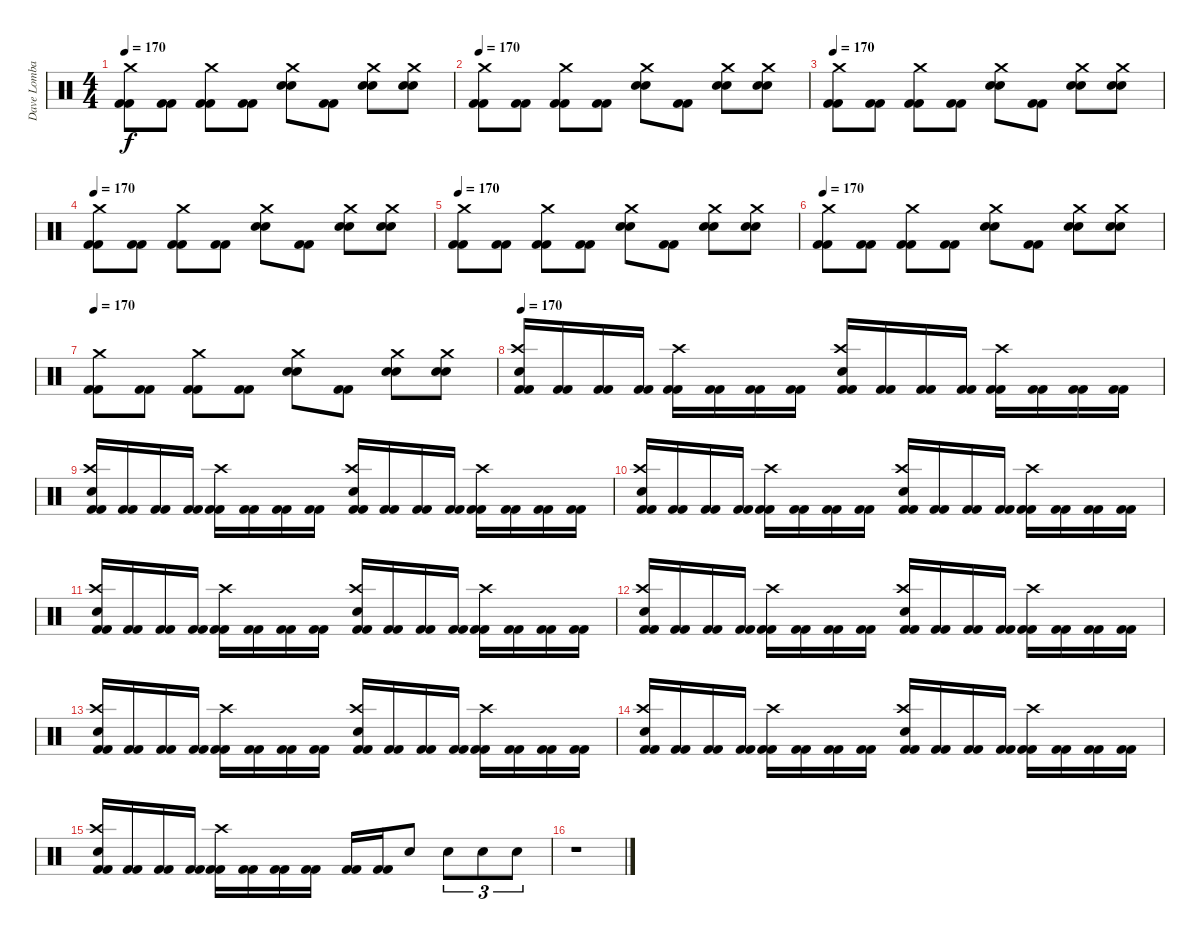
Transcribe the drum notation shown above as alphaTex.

\track ("Dave Lombardo" "Dave Lomba") {instrument percussion}
\staff {score}
\articulation defaults
\ts (4 4)
\tempo 170
\clef neutral
\ks c
("Crash medium (hit)" "Kick (hit) 2" "Kick (hit) 2").8{dy f} ("Kick (hit) 2" "Kick (hit) 2").8{txt " "} ("Crash medium (hit)" "Kick (hit) 2" "Kick (hit) 2").8 ("Kick (hit) 2" "Kick (hit) 2").8 ("Crash medium (hit)" "Snare (hit) 2" "Snare (hit) 2").8 ("Kick (hit) 2" "Kick (hit) 2").8 ("Crash medium (hit)" "Snare (hit) 2" "Snare (hit) 2").8 ("Crash medium (hit)" "Snare (hit) 2" "Snare (hit) 2").8 |
\tempo 170
("Crash medium (hit)" "Kick (hit) 2" "Kick (hit) 2").8 ("Kick (hit) 2" "Kick (hit) 2").8{txt " "} ("Crash medium (hit)" "Kick (hit) 2" "Kick (hit) 2").8 ("Kick (hit) 2" "Kick (hit) 2").8 ("Crash medium (hit)" "Snare (hit) 2" "Snare (hit) 2").8 ("Kick (hit) 2" "Kick (hit) 2").8 ("Crash medium (hit)" "Snare (hit) 2" "Snare (hit) 2").8 ("Crash medium (hit)" "Snare (hit) 2" "Snare (hit) 2").8 |
\tempo 170
("Crash medium (hit)" "Kick (hit) 2" "Kick (hit) 2").8 ("Kick (hit) 2" "Kick (hit) 2").8{txt " "} ("Crash medium (hit)" "Kick (hit) 2" "Kick (hit) 2").8 ("Kick (hit) 2" "Kick (hit) 2").8 ("Crash medium (hit)" "Snare (hit) 2" "Snare (hit) 2").8 ("Kick (hit) 2" "Kick (hit) 2").8 ("Crash medium (hit)" "Snare (hit) 2" "Snare (hit) 2").8 ("Crash medium (hit)" "Snare (hit) 2" "Snare (hit) 2").8 |
\tempo 170
("Crash medium (hit)" "Kick (hit) 2" "Kick (hit) 2").8 ("Kick (hit) 2" "Kick (hit) 2").8{txt " "} ("Crash medium (hit)" "Kick (hit) 2" "Kick (hit) 2").8 ("Kick (hit) 2" "Kick (hit) 2").8 ("Crash medium (hit)" "Snare (hit) 2" "Snare (hit) 2").8 ("Kick (hit) 2" "Kick (hit) 2").8 ("Crash medium (hit)" "Snare (hit) 2" "Snare (hit) 2").8 ("Crash medium (hit)" "Snare (hit) 2" "Snare (hit) 2").8 |
\tempo 170
("Crash medium (hit)" "Kick (hit) 2" "Kick (hit) 2").8 ("Kick (hit) 2" "Kick (hit) 2").8{txt " "} ("Crash medium (hit)" "Kick (hit) 2" "Kick (hit) 2").8 ("Kick (hit) 2" "Kick (hit) 2").8 ("Crash medium (hit)" "Snare (hit) 2" "Snare (hit) 2").8 ("Kick (hit) 2" "Kick (hit) 2").8 ("Crash medium (hit)" "Snare (hit) 2" "Snare (hit) 2").8 ("Crash medium (hit)" "Snare (hit) 2" "Snare (hit) 2").8 |
\tempo 170
("Crash medium (hit)" "Kick (hit) 2" "Kick (hit) 2").8 ("Kick (hit) 2" "Kick (hit) 2").8{txt " "} ("Crash medium (hit)" "Kick (hit) 2" "Kick (hit) 2").8 ("Kick (hit) 2" "Kick (hit) 2").8 ("Crash medium (hit)" "Snare (hit) 2" "Snare (hit) 2").8 ("Kick (hit) 2" "Kick (hit) 2").8 ("Crash medium (hit)" "Snare (hit) 2" "Snare (hit) 2").8 ("Crash medium (hit)" "Snare (hit) 2" "Snare (hit) 2").8 |
\tempo 170
("Crash medium (hit)" "Kick (hit) 2" "Kick (hit) 2").8 ("Kick (hit) 2" "Kick (hit) 2").8{txt " "} ("Crash medium (hit)" "Kick (hit) 2" "Kick (hit) 2").8 ("Kick (hit) 2" "Kick (hit) 2").8 ("Crash medium (hit)" "Snare (hit) 2" "Snare (hit) 2").8 ("Kick (hit) 2" "Kick (hit) 2").8 ("Crash medium (hit)" "Snare (hit) 2" "Snare (hit) 2").8 ("Crash medium (hit)" "Snare (hit) 2" "Snare (hit) 2").8 |
\tempo 170
("Crash high (hit)" "Electric Snare (hit)" "Kick (hit) 2" "Kick (hit) 2").16 ("Kick (hit) 2" "Kick (hit) 2").16 ("Kick (hit) 2" "Kick (hit) 2").16 ("Kick (hit) 2" "Kick (hit) 2").16 ("Crash high (hit)" "Kick (hit) 2" "Kick (hit) 2").16 ("Kick (hit) 2" "Kick (hit) 2").16 ("Kick (hit) 2" "Kick (hit) 2").16 ("Kick (hit) 2" "Kick (hit) 2").16 ("Crash high (hit)" "Electric Snare (hit)" "Kick (hit) 2" "Kick (hit) 2").16 ("Kick (hit) 2" "Kick (hit) 2").16 ("Kick (hit) 2" "Kick (hit) 2").16 ("Kick (hit) 2" "Kick (hit) 2").16 ("Crash high (hit)" "Kick (hit) 2" "Kick (hit) 2").16 ("Kick (hit) 2" "Kick (hit) 2").16 ("Kick (hit) 2" "Kick (hit) 2").16 ("Kick (hit) 2" "Kick (hit) 2").16 |
("Crash high (hit)" "Electric Snare (hit)" "Kick (hit) 2" "Kick (hit) 2").16 ("Kick (hit) 2" "Kick (hit) 2").16 ("Kick (hit) 2" "Kick (hit) 2").16 ("Kick (hit) 2" "Kick (hit) 2").16 ("Crash high (hit)" "Kick (hit) 2" "Kick (hit) 2").16 ("Kick (hit) 2" "Kick (hit) 2").16 ("Kick (hit) 2" "Kick (hit) 2").16 ("Kick (hit) 2" "Kick (hit) 2").16 ("Crash high (hit)" "Electric Snare (hit)" "Kick (hit) 2" "Kick (hit) 2").16 ("Kick (hit) 2" "Kick (hit) 2").16 ("Kick (hit) 2" "Kick (hit) 2").16 ("Kick (hit) 2" "Kick (hit) 2").16 ("Crash high (hit)" "Kick (hit) 2" "Kick (hit) 2").16 ("Kick (hit) 2" "Kick (hit) 2").16 ("Kick (hit) 2" "Kick (hit) 2").16 ("Kick (hit) 2" "Kick (hit) 2").16 |
("Crash high (hit)" "Electric Snare (hit)" "Kick (hit) 2" "Kick (hit) 2").16 ("Kick (hit) 2" "Kick (hit) 2").16 ("Kick (hit) 2" "Kick (hit) 2").16 ("Kick (hit) 2" "Kick (hit) 2").16 ("Crash high (hit)" "Kick (hit) 2" "Kick (hit) 2").16 ("Kick (hit) 2" "Kick (hit) 2").16 ("Kick (hit) 2" "Kick (hit) 2").16 ("Kick (hit) 2" "Kick (hit) 2").16 ("Crash high (hit)" "Electric Snare (hit)" "Kick (hit) 2" "Kick (hit) 2").16 ("Kick (hit) 2" "Kick (hit) 2").16 ("Kick (hit) 2" "Kick (hit) 2").16 ("Kick (hit) 2" "Kick (hit) 2").16 ("Crash high (hit)" "Kick (hit) 2" "Kick (hit) 2").16 ("Kick (hit) 2" "Kick (hit) 2").16 ("Kick (hit) 2" "Kick (hit) 2").16 ("Kick (hit) 2" "Kick (hit) 2").16 |
("Crash high (hit)" "Electric Snare (hit)" "Kick (hit) 2" "Kick (hit) 2").16 ("Kick (hit) 2" "Kick (hit) 2").16 ("Kick (hit) 2" "Kick (hit) 2").16 ("Kick (hit) 2" "Kick (hit) 2").16 ("Crash high (hit)" "Kick (hit) 2" "Kick (hit) 2").16 ("Kick (hit) 2" "Kick (hit) 2").16 ("Kick (hit) 2" "Kick (hit) 2").16 ("Kick (hit) 2" "Kick (hit) 2").16 ("Crash high (hit)" "Electric Snare (hit)" "Kick (hit) 2" "Kick (hit) 2").16 ("Kick (hit) 2" "Kick (hit) 2").16 ("Kick (hit) 2" "Kick (hit) 2").16 ("Kick (hit) 2" "Kick (hit) 2").16 ("Crash high (hit)" "Kick (hit) 2" "Kick (hit) 2").16 ("Kick (hit) 2" "Kick (hit) 2").16 ("Kick (hit) 2" "Kick (hit) 2").16 ("Kick (hit) 2" "Kick (hit) 2").16 |
("Crash high (hit)" "Electric Snare (hit)" "Kick (hit) 2" "Kick (hit) 2").16 ("Kick (hit) 2" "Kick (hit) 2").16 ("Kick (hit) 2" "Kick (hit) 2").16 ("Kick (hit) 2" "Kick (hit) 2").16 ("Crash high (hit)" "Kick (hit) 2" "Kick (hit) 2").16 ("Kick (hit) 2" "Kick (hit) 2").16 ("Kick (hit) 2" "Kick (hit) 2").16 ("Kick (hit) 2" "Kick (hit) 2").16 ("Crash high (hit)" "Electric Snare (hit)" "Kick (hit) 2" "Kick (hit) 2").16 ("Kick (hit) 2" "Kick (hit) 2").16 ("Kick (hit) 2" "Kick (hit) 2").16 ("Kick (hit) 2" "Kick (hit) 2").16 ("Crash high (hit)" "Kick (hit) 2" "Kick (hit) 2").16 ("Kick (hit) 2" "Kick (hit) 2").16 ("Kick (hit) 2" "Kick (hit) 2").16 ("Kick (hit) 2" "Kick (hit) 2").16 |
("Crash high (hit)" "Electric Snare (hit)" "Kick (hit) 2" "Kick (hit) 2").16 ("Kick (hit) 2" "Kick (hit) 2").16 ("Kick (hit) 2" "Kick (hit) 2").16 ("Kick (hit) 2" "Kick (hit) 2").16 ("Crash high (hit)" "Kick (hit) 2" "Kick (hit) 2").16 ("Kick (hit) 2" "Kick (hit) 2").16 ("Kick (hit) 2" "Kick (hit) 2").16 ("Kick (hit) 2" "Kick (hit) 2").16 ("Crash high (hit)" "Electric Snare (hit)" "Kick (hit) 2" "Kick (hit) 2").16 ("Kick (hit) 2" "Kick (hit) 2").16 ("Kick (hit) 2" "Kick (hit) 2").16 ("Kick (hit) 2" "Kick (hit) 2").16 ("Crash high (hit)" "Kick (hit) 2" "Kick (hit) 2").16 ("Kick (hit) 2" "Kick (hit) 2").16 ("Kick (hit) 2" "Kick (hit) 2").16 ("Kick (hit) 2" "Kick (hit) 2").16 |
("Crash high (hit)" "Electric Snare (hit)" "Kick (hit) 2" "Kick (hit) 2").16 ("Kick (hit) 2" "Kick (hit) 2").16 ("Kick (hit) 2" "Kick (hit) 2").16 ("Kick (hit) 2" "Kick (hit) 2").16 ("Crash high (hit)" "Kick (hit) 2" "Kick (hit) 2").16 ("Kick (hit) 2" "Kick (hit) 2").16 ("Kick (hit) 2" "Kick (hit) 2").16 ("Kick (hit) 2" "Kick (hit) 2").16 ("Crash high (hit)" "Electric Snare (hit)" "Kick (hit) 2" "Kick (hit) 2").16 ("Kick (hit) 2" "Kick (hit) 2").16 ("Kick (hit) 2" "Kick (hit) 2").16 ("Kick (hit) 2" "Kick (hit) 2").16 ("Crash high (hit)" "Kick (hit) 2" "Kick (hit) 2").16 ("Kick (hit) 2" "Kick (hit) 2").16 ("Kick (hit) 2" "Kick (hit) 2").16 ("Kick (hit) 2" "Kick (hit) 2").16 |
("Crash high (hit)" "Electric Snare (hit)" "Kick (hit) 2" "Kick (hit) 2").16 ("Kick (hit) 2" "Kick (hit) 2").16 ("Kick (hit) 2" "Kick (hit) 2").16 ("Kick (hit) 2" "Kick (hit) 2").16 ("Crash high (hit)" "Kick (hit) 2" "Kick (hit) 2").16 ("Kick (hit) 2" "Kick (hit) 2").16 ("Kick (hit) 2" "Kick (hit) 2").16 ("Kick (hit) 2" "Kick (hit) 2").16 ("Kick (hit) 2" "Kick (hit) 2").16 ("Kick (hit) 2" "Kick (hit) 2").16 "Electric Snare (hit)".8 "Electric Snare (hit)".8{tu (3 2)} "Electric Snare (hit)".8{tu (3 2)} "Electric Snare (hit)".8{tu (3 2)} |
r.1
